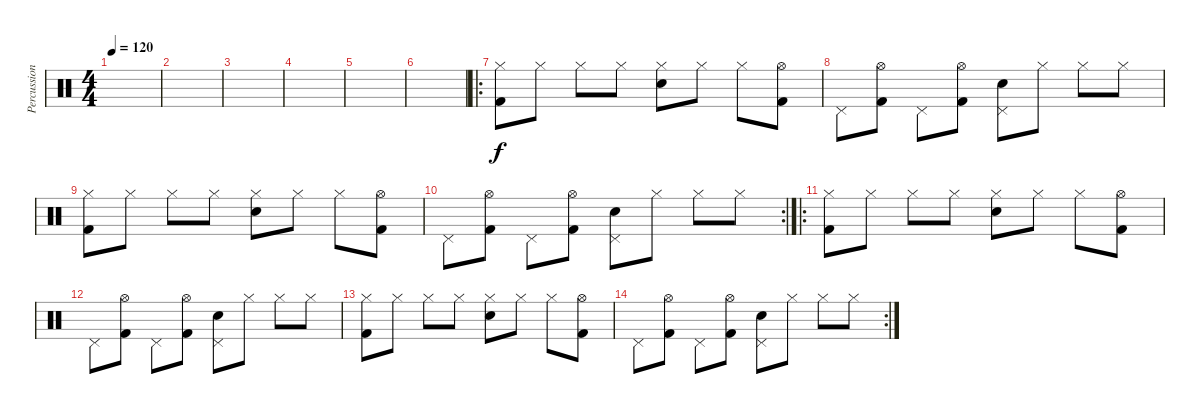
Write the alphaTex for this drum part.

\track ("Percussion" "Percussion") {instrument percussion}
\staff {score}
\articulation defaults
\ts (4 4)
\tempo 120
\clef neutral
\ks c
|
|
|
|
|
|
\ro
("Hi-Hat (closed)" "Kick (hit) 2").8 "Hi-Hat (closed)".8 "Hi-Hat (closed)".8 "Hi-Hat (closed)".8 ("Hi-Hat (closed)" "Snare (hit) 2").8 "Hi-Hat (closed)".8 "Hi-Hat (closed)".8 ("Hi-Hat (open)" "Kick (hit) 2").8 |
"Pedal Hi-Hat (hit)".8 ("Hi-Hat (open)" "Kick (hit) 2").8 "Pedal Hi-Hat (hit)".8 ("Hi-Hat (open)" "Kick (hit) 2").8 ("Pedal Hi-Hat (hit)" "Snare (hit) 2").8 "Hi-Hat (closed)".8 "Hi-Hat (closed)".8 "Hi-Hat (closed)".8 |
("Hi-Hat (closed)" "Kick (hit) 2").8 "Hi-Hat (closed)".8 "Hi-Hat (closed)".8 "Hi-Hat (closed)".8 ("Hi-Hat (closed)" "Snare (hit) 2").8 "Hi-Hat (closed)".8 "Hi-Hat (closed)".8 ("Hi-Hat (open)" "Kick (hit) 2").8 |
\rc 2 "Pedal Hi-Hat (hit)".8
("Hi-Hat (open)" "Kick (hit) 2").8 "Pedal Hi-Hat (hit)".8 ("Hi-Hat (open)" "Kick (hit) 2").8 ("Pedal Hi-Hat (hit)" "Snare (hit) 2").8 "Hi-Hat (closed)".8 "Hi-Hat (closed)".8 "Hi-Hat (closed)".8 |
\ro
("Hi-Hat (closed)" "Kick (hit) 2").8 "Hi-Hat (closed)".8 "Hi-Hat (closed)".8 "Hi-Hat (closed)".8 ("Hi-Hat (closed)" "Snare (hit) 2").8 "Hi-Hat (closed)".8 "Hi-Hat (closed)".8 ("Hi-Hat (open)" "Kick (hit) 2").8 |
"Pedal Hi-Hat (hit)".8 ("Hi-Hat (open)" "Kick (hit) 2").8 "Pedal Hi-Hat (hit)".8 ("Hi-Hat (open)" "Kick (hit) 2").8 ("Pedal Hi-Hat (hit)" "Snare (hit) 2").8 "Hi-Hat (closed)".8 "Hi-Hat (closed)".8 "Hi-Hat (closed)".8 |
("Hi-Hat (closed)" "Kick (hit) 2").8 "Hi-Hat (closed)".8 "Hi-Hat (closed)".8 "Hi-Hat (closed)".8 ("Hi-Hat (closed)" "Snare (hit) 2").8 "Hi-Hat (closed)".8 "Hi-Hat (closed)".8 ("Hi-Hat (open)" "Kick (hit) 2").8 |
\rc 2 "Pedal Hi-Hat (hit)".8
("Hi-Hat (open)" "Kick (hit) 2").8 "Pedal Hi-Hat (hit)".8 ("Hi-Hat (open)" "Kick (hit) 2").8 ("Pedal Hi-Hat (hit)" "Snare (hit) 2").8 "Hi-Hat (closed)".8 "Hi-Hat (closed)".8 "Hi-Hat (closed)".8
